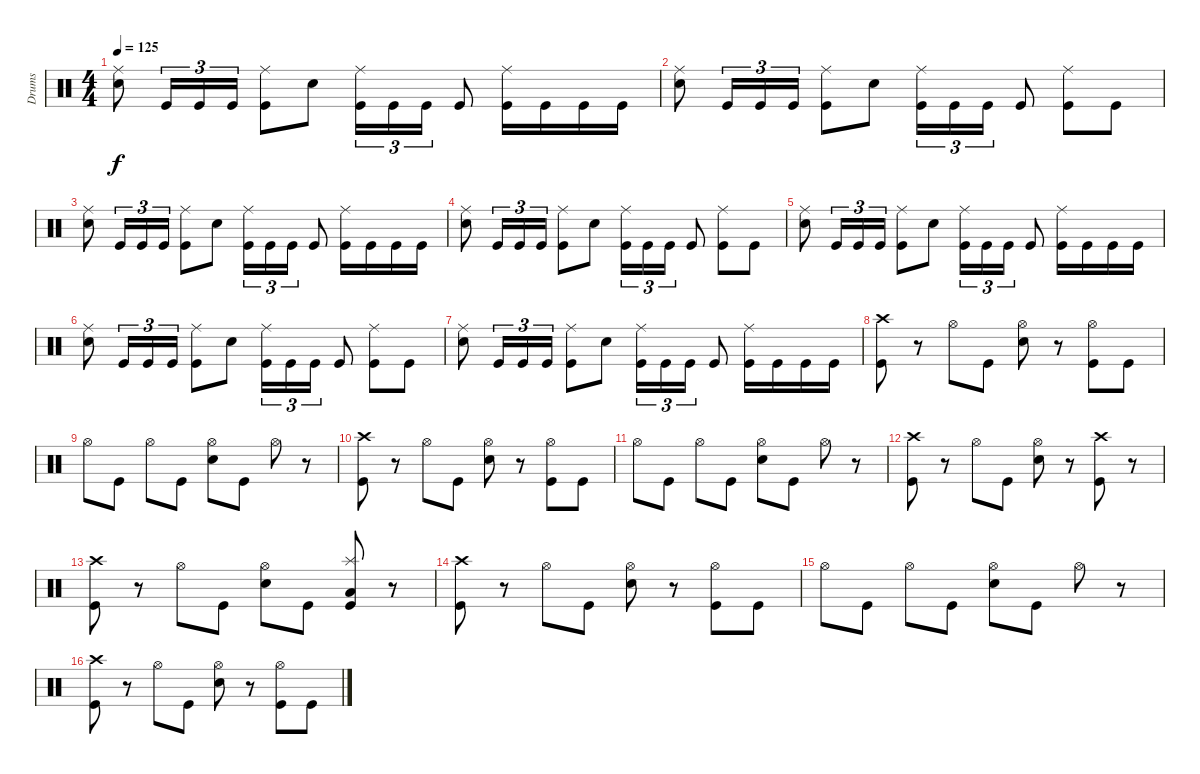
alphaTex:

\track ("Drums" "Drums") {instrument percussion}
\staff {score}
\articulation defaults
\ts (4 4)
\tempo 125
\clef neutral
\ks c
("Ride (middle)" "Snare (hit) 2").8{dy f} "Kick (hit)".16{tu (3 2)} "Kick (hit)".16{tu (3 2)} "Kick (hit)".16{tu (3 2)} ("Ride (middle)" "Kick (hit)").8 "Snare (hit) 2".8 ("Ride (middle)" "Kick (hit)").16{tu (3 2)} "Kick (hit)".16{tu (3 2)} "Kick (hit)".16{tu (3 2)} "Kick (hit)".8 ("Ride (middle)" "Kick (hit)").16 "Kick (hit)".16 "Kick (hit)".16 "Kick (hit)".16 |
("Ride (middle)" "Snare (hit) 2").8 "Kick (hit)".16{tu (3 2)} "Kick (hit)".16{tu (3 2)} "Kick (hit)".16{tu (3 2)} ("Ride (middle)" "Kick (hit)").8 "Snare (hit) 2".8 ("Ride (middle)" "Kick (hit)").16{tu (3 2)} "Kick (hit)".16{tu (3 2)} "Kick (hit)".16{tu (3 2)} "Kick (hit)".8 ("Ride (middle)" "Kick (hit)").8 "Kick (hit)".8 |
("Ride (middle)" "Snare (hit) 2").8 "Kick (hit)".16{tu (3 2)} "Kick (hit)".16{tu (3 2)} "Kick (hit)".16{tu (3 2)} ("Ride (middle)" "Kick (hit)").8 "Snare (hit) 2".8 ("Ride (middle)" "Kick (hit)").16{tu (3 2)} "Kick (hit)".16{tu (3 2)} "Kick (hit)".16{tu (3 2)} "Kick (hit)".8 ("Ride (middle)" "Kick (hit)").16 "Kick (hit)".16 "Kick (hit)".16 "Kick (hit)".16 |
("Ride (middle)" "Snare (hit) 2").8 "Kick (hit)".16{tu (3 2)} "Kick (hit)".16{tu (3 2)} "Kick (hit)".16{tu (3 2)} ("Ride (middle)" "Kick (hit)").8 "Snare (hit) 2".8 ("Ride (middle)" "Kick (hit)").16{tu (3 2)} "Kick (hit)".16{tu (3 2)} "Kick (hit)".16{tu (3 2)} "Kick (hit)".8 ("Ride (middle)" "Kick (hit)").8 "Kick (hit)".8 |
("Ride (middle)" "Snare (hit) 2").8 "Kick (hit)".16{tu (3 2)} "Kick (hit)".16{tu (3 2)} "Kick (hit)".16{tu (3 2)} ("Ride (middle)" "Kick (hit)").8 "Snare (hit) 2".8 ("Ride (middle)" "Kick (hit)").16{tu (3 2)} "Kick (hit)".16{tu (3 2)} "Kick (hit)".16{tu (3 2)} "Kick (hit)".8 ("Ride (middle)" "Kick (hit)").16 "Kick (hit)".16 "Kick (hit)".16 "Kick (hit)".16 |
("Ride (middle)" "Snare (hit) 2").8 "Kick (hit)".16{tu (3 2)} "Kick (hit)".16{tu (3 2)} "Kick (hit)".16{tu (3 2)} ("Ride (middle)" "Kick (hit)").8 "Snare (hit) 2".8 ("Ride (middle)" "Kick (hit)").16{tu (3 2)} "Kick (hit)".16{tu (3 2)} "Kick (hit)".16{tu (3 2)} "Kick (hit)".8 ("Ride (middle)" "Kick (hit)").8 "Kick (hit)".8 |
("Ride (middle)" "Snare (hit) 2").8 "Kick (hit)".16{tu (3 2)} "Kick (hit)".16{tu (3 2)} "Kick (hit)".16{tu (3 2)} ("Ride (middle)" "Kick (hit)").8 "Snare (hit) 2".8 ("Ride (middle)" "Kick (hit)").16{tu (3 2)} "Kick (hit)".16{tu (3 2)} "Kick (hit)".16{tu (3 2)} "Kick (hit)".8 ("Ride (middle)" "Kick (hit)").16 "Kick (hit)".16 "Kick (hit)".16 "Kick (hit)".16 |
("Crash high (hit)" "Kick (hit)").8 r.8 "Hi-Hat (open)".8 "Kick (hit)".8 ("Hi-Hat (open)" "Snare (hit) 2").8 r.8 ("Hi-Hat (open)" "Kick (hit)").8 "Kick (hit)".8 |
"Hi-Hat (open)".8 "Kick (hit)".8 "Hi-Hat (open)".8 "Kick (hit)".8 ("Hi-Hat (open)" "Snare (hit) 2").8 "Kick (hit)".8 "Hi-Hat (open)".8 r.8 |
("Crash high (hit)" "Kick (hit)").8 r.8 "Hi-Hat (open)".8 "Kick (hit)".8 ("Hi-Hat (open)" "Snare (hit) 2").8 r.8 ("Hi-Hat (open)" "Kick (hit)").8 "Kick (hit)".8 |
"Hi-Hat (open)".8 "Kick (hit)".8 "Hi-Hat (open)".8 "Kick (hit)".8 ("Hi-Hat (open)" "Snare (hit) 2").8 "Kick (hit)".8 "Hi-Hat (open)".8 r.8 |
("Crash high (hit)" "Kick (hit)").8 r.8 "Hi-Hat (open)".8 "Kick (hit)".8 ("Hi-Hat (open)" "Snare (hit) 2").8 r.8 ("Crash high (hit)" "Kick (hit)").8 r.8 |
("Crash high (hit)" "Kick (hit)").8 r.8 "Hi-Hat (open)".8 "Kick (hit)".8 ("Hi-Hat (open)" "Snare (hit) 2").8 "Kick (hit)".8 ("Splash (hit)" "Low Floor Tom (hit)" "Kick (hit)").8 r.8 |
("Crash high (hit)" "Kick (hit)").8 r.8 "Hi-Hat (open)".8 "Kick (hit)".8 ("Hi-Hat (open)" "Snare (hit) 2").8 r.8 ("Hi-Hat (open)" "Kick (hit)").8 "Kick (hit)".8 |
"Hi-Hat (open)".8 "Kick (hit)".8 "Hi-Hat (open)".8 "Kick (hit)".8 ("Hi-Hat (open)" "Snare (hit) 2").8 "Kick (hit)".8 "Hi-Hat (open)".8 r.8 |
("Crash high (hit)" "Kick (hit)").8 r.8 "Hi-Hat (open)".8 "Kick (hit)".8 ("Hi-Hat (open)" "Snare (hit) 2").8 r.8 ("Hi-Hat (open)" "Kick (hit)").8 "Kick (hit)".8
